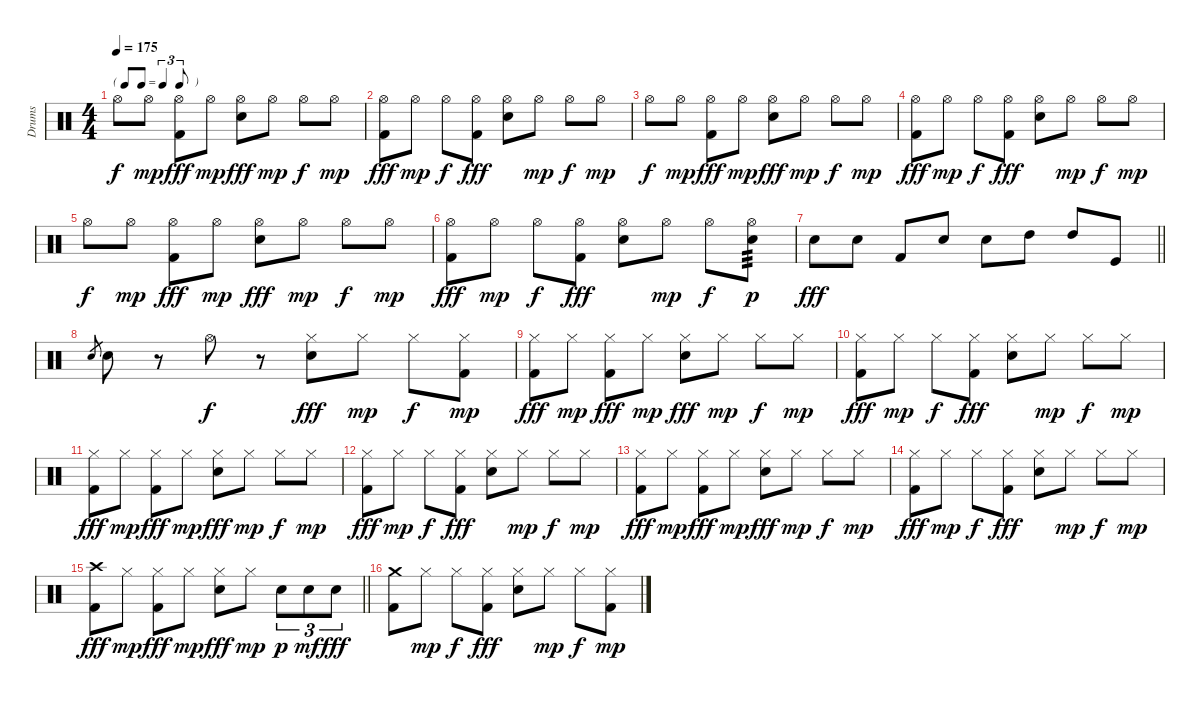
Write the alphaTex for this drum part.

\track ("Drums" "Drums") {instrument percussion}
\staff {score}
\articulation defaults
\ts (4 4)
\tf triplet8th
\tempo 175
\clef neutral
\ks c "Hi-Hat (open)".8{dy f} "Hi-Hat (open)".8{dy mp}
("Hi-Hat (open)" "Kick (hit) 2").8{dy fff} "Hi-Hat (open)".8{dy mp} ("Hi-Hat (open)" "Electric Snare (hit)").8{dy fff} "Hi-Hat (open)".8{dy mp} "Hi-Hat (open)".8{dy f} "Hi-Hat (open)".8{dy mp} |
("Hi-Hat (open)" "Kick (hit) 2").8{dy fff} "Hi-Hat (open)".8{dy mp} "Hi-Hat (open)".8{dy f} ("Hi-Hat (open)" "Kick (hit) 2").8{dy fff} ("Hi-Hat (open)" "Electric Snare (hit)").8 "Hi-Hat (open)".8{dy mp} "Hi-Hat (open)".8{dy f} "Hi-Hat (open)".8{dy mp} |
"Hi-Hat (open)".8{dy f} "Hi-Hat (open)".8{dy mp} ("Hi-Hat (open)" "Kick (hit) 2").8{dy fff} "Hi-Hat (open)".8{dy mp} ("Hi-Hat (open)" "Electric Snare (hit)").8{dy fff} "Hi-Hat (open)".8{dy mp} "Hi-Hat (open)".8{dy f} "Hi-Hat (open)".8{dy mp} |
("Hi-Hat (open)" "Kick (hit) 2").8{dy fff} "Hi-Hat (open)".8{dy mp} "Hi-Hat (open)".8{dy f} ("Hi-Hat (open)" "Kick (hit) 2").8{dy fff} ("Hi-Hat (open)" "Electric Snare (hit)").8 "Hi-Hat (open)".8{dy mp} "Hi-Hat (open)".8{dy f} "Hi-Hat (open)".8{dy mp} |
"Hi-Hat (open)".8{dy f} "Hi-Hat (open)".8{dy mp} ("Hi-Hat (open)" "Kick (hit) 2").8{dy fff} "Hi-Hat (open)".8{dy mp} ("Hi-Hat (open)" "Electric Snare (hit)").8{dy fff} "Hi-Hat (open)".8{dy mp} "Hi-Hat (open)".8{dy f} "Hi-Hat (open)".8{dy mp} |
("Hi-Hat (open)" "Kick (hit) 2").8{dy fff} "Hi-Hat (open)".8{dy mp} "Hi-Hat (open)".8{dy f} ("Hi-Hat (open)" "Kick (hit) 2").8{dy fff} ("Hi-Hat (open)" "Electric Snare (hit)").8 "Hi-Hat (open)".8{dy mp} "Hi-Hat (open)".8{dy f} ("Hi-Hat (open)" "Electric Snare (hit)").8{tp 3 dy p} |
\barLineRight lightlight "Electric Snare (hit)".8{dy fff} "Electric Snare (hit)".8 "Kick (hit) 2".8 "Electric Snare (hit)".8 "Electric Snare (hit)".8 "High Tom (hit)".8 "High Tom (hit)".8 "Kick (hit)".8
|
"Electric Snare (hit)".8{gr} "Electric Snare (hit)".8 r.8 "Hi-Hat (open)".8{dy f} r.8 ("Hi-Hat (closed)" "Electric Snare (hit)").8{dy fff} "Hi-Hat (closed)".8{dy mp} "Hi-Hat (closed)".8{dy f} ("Hi-Hat (closed)" "Kick (hit) 2").8{dy mp} |
("Hi-Hat (closed)" "Kick (hit) 2").8{dy fff} "Hi-Hat (closed)".8{dy mp} ("Hi-Hat (closed)" "Kick (hit) 2").8{dy fff} "Hi-Hat (closed)".8{dy mp} ("Hi-Hat (closed)" "Electric Snare (hit)").8{dy fff} "Hi-Hat (closed)".8{dy mp} "Hi-Hat (closed)".8{dy f} "Hi-Hat (closed)".8{dy mp} |
("Hi-Hat (closed)" "Kick (hit) 2").8{dy fff} "Hi-Hat (closed)".8{dy mp} "Hi-Hat (closed)".8{dy f} ("Hi-Hat (closed)" "Kick (hit) 2").8{dy fff} ("Hi-Hat (closed)" "Electric Snare (hit)").8 "Hi-Hat (closed)".8{dy mp} "Hi-Hat (closed)".8{dy f} "Hi-Hat (closed)".8{dy mp} |
("Hi-Hat (closed)" "Kick (hit) 2").8{dy fff} "Hi-Hat (closed)".8{dy mp} ("Hi-Hat (closed)" "Kick (hit) 2").8{dy fff} "Hi-Hat (closed)".8{dy mp} ("Hi-Hat (closed)" "Electric Snare (hit)").8{dy fff} "Hi-Hat (closed)".8{dy mp} "Hi-Hat (closed)".8{dy f} "Hi-Hat (closed)".8{dy mp} |
("Hi-Hat (closed)" "Kick (hit) 2").8{dy fff} "Hi-Hat (closed)".8{dy mp} "Hi-Hat (closed)".8{dy f} ("Hi-Hat (closed)" "Kick (hit) 2").8{dy fff} ("Hi-Hat (closed)" "Electric Snare (hit)").8 "Hi-Hat (closed)".8{dy mp} "Hi-Hat (closed)".8{dy f} "Hi-Hat (closed)".8{dy mp} |
("Hi-Hat (closed)" "Kick (hit) 2").8{dy fff} "Hi-Hat (closed)".8{dy mp} ("Hi-Hat (closed)" "Kick (hit) 2").8{dy fff} "Hi-Hat (closed)".8{dy mp} ("Hi-Hat (closed)" "Electric Snare (hit)").8{dy fff} "Hi-Hat (closed)".8{dy mp} "Hi-Hat (closed)".8{dy f} "Hi-Hat (closed)".8{dy mp} |
("Hi-Hat (closed)" "Kick (hit) 2").8{dy fff} "Hi-Hat (closed)".8{dy mp} "Hi-Hat (closed)".8{dy f} ("Hi-Hat (closed)" "Kick (hit) 2").8{dy fff} ("Hi-Hat (closed)" "Electric Snare (hit)").8 "Hi-Hat (closed)".8{dy mp} "Hi-Hat (closed)".8{dy f} "Hi-Hat (closed)".8{dy mp} |
\barLineRight lightlight
("Crash high (hit)" "Kick (hit) 2").8{dy fff} "Hi-Hat (closed)".8{dy mp} ("Hi-Hat (closed)" "Kick (hit) 2").8{dy fff} "Hi-Hat (closed)".8{dy mp} ("Hi-Hat (closed)" "Electric Snare (hit)").8{dy fff} "Hi-Hat (closed)".8{dy mp} "Electric Snare (hit)".8{tu (3 2) dy p} "Electric Snare (hit)".8{tu (3 2) dy mf} "Electric Snare (hit)".8{tu (3 2) dy fff} |
("Crash medium (hit)" "Kick (hit) 2").8 "Hi-Hat (closed)".8{dy mp} "Hi-Hat (closed)".8{dy f} ("Hi-Hat (closed)" "Kick (hit) 2").8{dy fff} ("Hi-Hat (closed)" "Electric Snare (hit)").8 "Hi-Hat (closed)".8{dy mp} "Hi-Hat (closed)".8{dy f} ("Hi-Hat (closed)" "Kick (hit) 2").8{dy mp}
